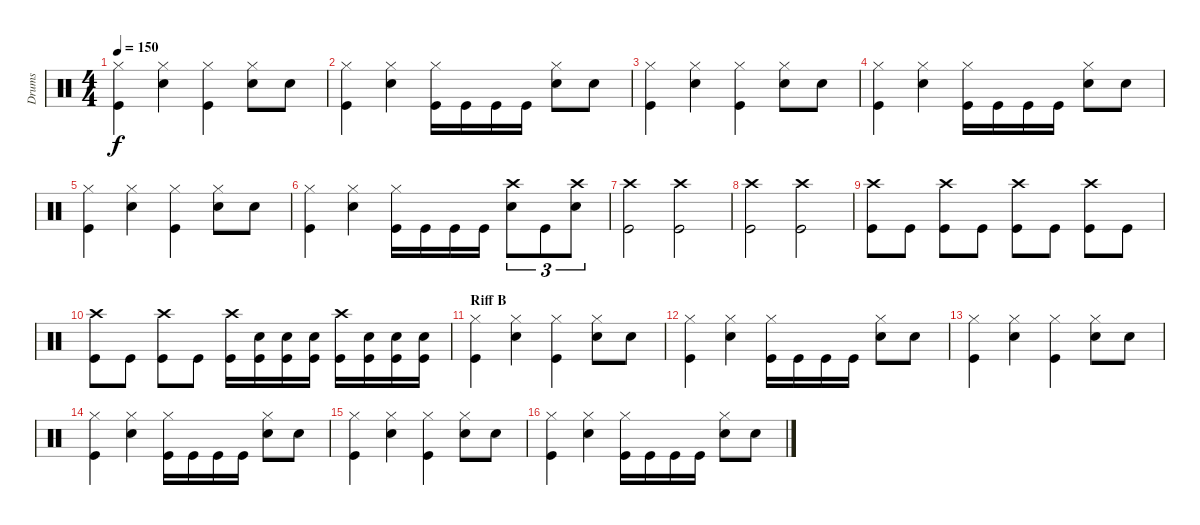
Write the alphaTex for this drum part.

\track ("Drums" "Drums") {instrument percussion}
\staff {score}
\articulation defaults
\ts (4 4)
\tempo 150
\clef neutral
\ks c
("Kick (hit)" "Hi-Hat (closed)").4{dy f} ("Electric Snare (hit)" "Hi-Hat (closed)").4 ("Kick (hit)" "Hi-Hat (closed)").4 ("Electric Snare (hit)" "Hi-Hat (closed)").8 "Electric Snare (hit)".8 |
("Kick (hit)" "Hi-Hat (closed)").4 ("Electric Snare (hit)" "Hi-Hat (closed)").4 ("Kick (hit)" "Hi-Hat (closed)").16 "Kick (hit)".16 "Kick (hit)".16 "Kick (hit)".16 ("Electric Snare (hit)" "Hi-Hat (closed)").8 "Electric Snare (hit)".8 |
("Kick (hit)" "Hi-Hat (closed)").4 ("Electric Snare (hit)" "Hi-Hat (closed)").4 ("Kick (hit)" "Hi-Hat (closed)").4 ("Electric Snare (hit)" "Hi-Hat (closed)").8 "Electric Snare (hit)".8 |
("Kick (hit)" "Hi-Hat (closed)").4 ("Electric Snare (hit)" "Hi-Hat (closed)").4 ("Kick (hit)" "Hi-Hat (closed)").16 "Kick (hit)".16 "Kick (hit)".16 "Kick (hit)".16 ("Electric Snare (hit)" "Hi-Hat (closed)").8 "Electric Snare (hit)".8 |
("Kick (hit)" "Hi-Hat (closed)").4 ("Electric Snare (hit)" "Hi-Hat (closed)").4 ("Kick (hit)" "Hi-Hat (closed)").4 ("Electric Snare (hit)" "Hi-Hat (closed)").8 "Electric Snare (hit)".8 |
("Kick (hit)" "Hi-Hat (closed)").4 ("Electric Snare (hit)" "Hi-Hat (closed)").4 ("Kick (hit)" "Hi-Hat (closed)").16 "Kick (hit)".16 "Kick (hit)".16 "Kick (hit)".16 ("Electric Snare (hit)" "Crash high (hit)").8{tu (3 2)} "Kick (hit)".8{tu (3 2)} ("Electric Snare (hit)" "Crash high (hit)").8{tu (3 2)} |
("Kick (hit)" "Crash high (hit)").2 ("Kick (hit)" "Crash high (hit)").2 |
("Kick (hit)" "Crash high (hit)").2 ("Kick (hit)" "Crash high (hit)").2 |
("Kick (hit)" "Crash high (hit)").8 "Kick (hit)".8 ("Kick (hit)" "Crash high (hit)").8 "Kick (hit)".8 ("Kick (hit)" "Crash high (hit)").8 "Kick (hit)".8 ("Kick (hit)" "Crash high (hit)").8 "Kick (hit)".8 |
("Kick (hit)" "Crash high (hit)").8 "Kick (hit)".8 ("Kick (hit)" "Crash high (hit)").8 "Kick (hit)".8 ("Kick (hit)" "Crash high (hit)").16 ("Kick (hit)" "Electric Snare (hit)").16 ("Kick (hit)" "Electric Snare (hit)").16 ("Kick (hit)" "Electric Snare (hit)").16 ("Kick (hit)" "Crash high (hit)").16 ("Kick (hit)" "Electric Snare (hit)").16 ("Kick (hit)" "Electric Snare (hit)").16 ("Kick (hit)" "Electric Snare (hit)").16 |
\section ("" "Riff B")
("Kick (hit)" "Hi-Hat (closed)").4 ("Electric Snare (hit)" "Hi-Hat (closed)").4 ("Kick (hit)" "Hi-Hat (closed)").4 ("Electric Snare (hit)" "Hi-Hat (closed)").8 "Electric Snare (hit)".8 |
("Kick (hit)" "Hi-Hat (closed)").4 ("Electric Snare (hit)" "Hi-Hat (closed)").4 ("Kick (hit)" "Hi-Hat (closed)").16 "Kick (hit)".16 "Kick (hit)".16 "Kick (hit)".16 ("Electric Snare (hit)" "Hi-Hat (closed)").8 "Electric Snare (hit)".8 |
("Kick (hit)" "Hi-Hat (closed)").4 ("Electric Snare (hit)" "Hi-Hat (closed)").4 ("Kick (hit)" "Hi-Hat (closed)").4 ("Electric Snare (hit)" "Hi-Hat (closed)").8 "Electric Snare (hit)".8 |
("Kick (hit)" "Hi-Hat (closed)").4 ("Electric Snare (hit)" "Hi-Hat (closed)").4 ("Kick (hit)" "Hi-Hat (closed)").16 "Kick (hit)".16 "Kick (hit)".16 "Kick (hit)".16 ("Electric Snare (hit)" "Hi-Hat (closed)").8 "Electric Snare (hit)".8 |
("Kick (hit)" "Hi-Hat (closed)").4 ("Electric Snare (hit)" "Hi-Hat (closed)").4 ("Kick (hit)" "Hi-Hat (closed)").4 ("Electric Snare (hit)" "Hi-Hat (closed)").8 "Electric Snare (hit)".8 |
("Kick (hit)" "Hi-Hat (closed)").4 ("Electric Snare (hit)" "Hi-Hat (closed)").4 ("Kick (hit)" "Hi-Hat (closed)").16 "Kick (hit)".16 "Kick (hit)".16 "Kick (hit)".16 ("Electric Snare (hit)" "Hi-Hat (closed)").8 "Electric Snare (hit)".8
